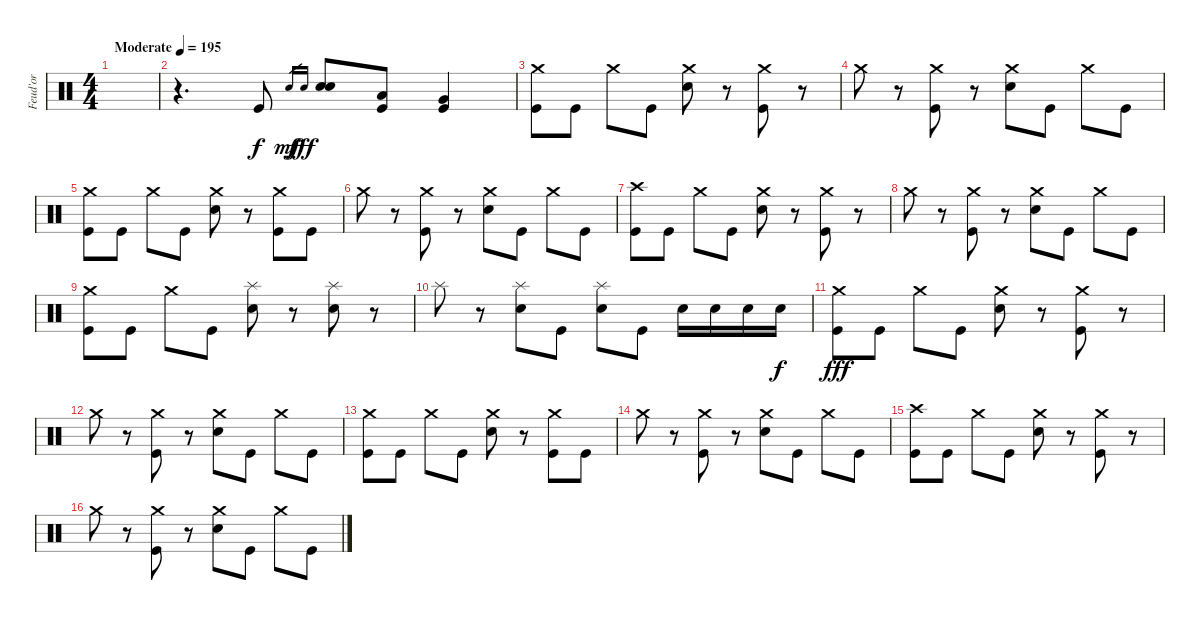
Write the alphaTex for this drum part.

\track ("Feud'or" "Feud'or") {instrument percussion}
\staff {score}
\articulation defaults
\ts (4 4)
\tempo (195 "Moderate")
\clef neutral
\ks c
|
r.4{d} "Kick (hit)".8 "Electric Snare (hit)".16{gr dy mf} "Snare (hit) 2".16{gr dy fff} ("Electric Snare (hit)" "Snare (hit) 2").8 ("Low Tom (hit)" "Kick (hit)").8 ("Very Low Tom (hit)" "Kick (hit)").4 |
("Crash medium (hit)" "Kick (hit)").8 "Kick (hit)".8 "Crash medium (hit)".8 "Kick (hit)".8 ("Crash medium (hit)" "Snare (hit) 2").8 r.8 ("Crash medium (hit)" "Kick (hit)").8 r.8 |
"Crash medium (hit)".8 r.8 ("Crash medium (hit)" "Kick (hit)").8 r.8 ("Crash medium (hit)" "Snare (hit) 2").8 "Kick (hit)".8 "Crash medium (hit)".8 "Kick (hit)".8 |
("Crash medium (hit)" "Kick (hit)").8 "Kick (hit)".8 "Crash medium (hit)".8 "Kick (hit)".8 ("Crash medium (hit)" "Snare (hit) 2").8 r.8 ("Crash medium (hit)" "Kick (hit)").8 "Kick (hit)".8 |
"Crash medium (hit)".8 r.8 ("Crash medium (hit)" "Kick (hit)").8 r.8 ("Crash medium (hit)" "Snare (hit) 2").8 "Kick (hit)".8 "Crash medium (hit)".8 "Kick (hit)".8 |
("Crash high (hit)" "Kick (hit)").8 "Kick (hit)".8 "Crash medium (hit)".8 "Kick (hit)".8 ("Crash medium (hit)" "Snare (hit) 2").8 r.8 ("Crash medium (hit)" "Kick (hit)").8 r.8 |
"Crash medium (hit)".8 r.8 ("Crash medium (hit)" "Kick (hit)").8 r.8 ("Crash medium (hit)" "Snare (hit) 2").8 "Kick (hit)".8 "Crash medium (hit)".8 "Kick (hit)".8 |
("Crash medium (hit)" "Kick (hit)").8 "Kick (hit)".8 "Crash medium (hit)".8 "Kick (hit)".8 ("Splash (hit)" "Snare (hit) 2").8 r.8 ("Splash (hit)" "Snare (hit) 2").8 r.8 |
"Splash (hit)".8 r.8 ("Splash (hit)" "Snare (hit) 2").8 "Kick (hit)".8 ("Splash (hit)" "Snare (hit) 2").8 "Kick (hit)".8 "Snare (hit) 2".16 "Snare (hit) 2".16 "Snare (hit) 2".16 "Snare (hit) 2".16{dy f} |
("Crash medium (hit)" "Kick (hit)").8{dy fff} "Kick (hit)".8 "Crash medium (hit)".8 "Kick (hit)".8 ("Crash medium (hit)" "Snare (hit) 2").8 r.8 ("Crash medium (hit)" "Kick (hit)").8 r.8 |
"Crash medium (hit)".8 r.8 ("Crash medium (hit)" "Kick (hit)").8 r.8 ("Crash medium (hit)" "Snare (hit) 2").8 "Kick (hit)".8 "Crash medium (hit)".8 "Kick (hit)".8 |
("Crash medium (hit)" "Kick (hit)").8 "Kick (hit)".8 "Crash medium (hit)".8 "Kick (hit)".8 ("Crash medium (hit)" "Snare (hit) 2").8 r.8 ("Crash medium (hit)" "Kick (hit)").8 "Kick (hit)".8 |
"Crash medium (hit)".8 r.8 ("Crash medium (hit)" "Kick (hit)").8 r.8 ("Crash medium (hit)" "Snare (hit) 2").8 "Kick (hit)".8 "Crash medium (hit)".8 "Kick (hit)".8 |
("Crash high (hit)" "Kick (hit)").8 "Kick (hit)".8 "Crash medium (hit)".8 "Kick (hit)".8 ("Crash medium (hit)" "Snare (hit) 2").8 r.8 ("Crash medium (hit)" "Kick (hit)").8 r.8 |
"Crash medium (hit)".8 r.8 ("Crash medium (hit)" "Kick (hit)").8 r.8 ("Crash medium (hit)" "Snare (hit) 2").8 "Kick (hit)".8 "Crash medium (hit)".8 "Kick (hit)".8
